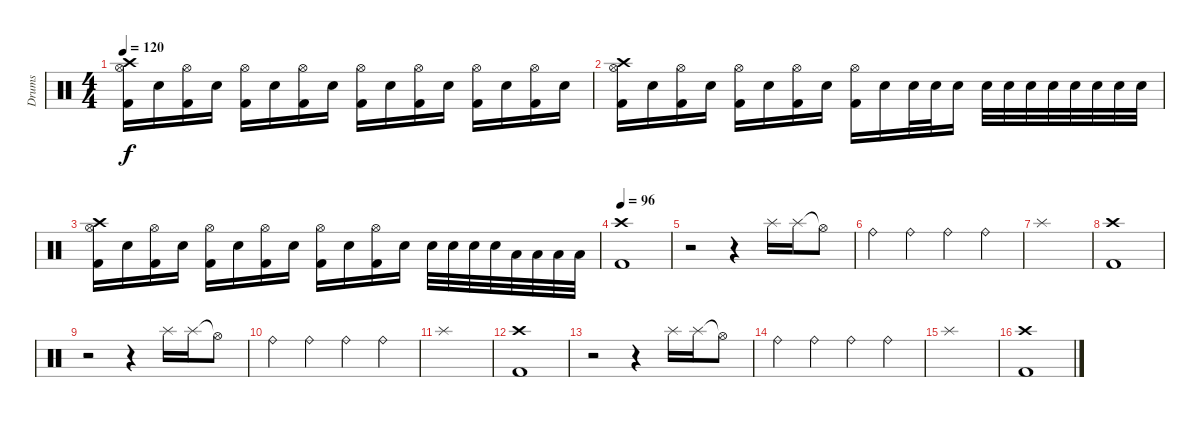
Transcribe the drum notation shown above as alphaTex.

\track ("Drums" "Drums") {instrument percussion}
\staff {score}
\articulation defaults
\ts (4 4)
\tempo 120
\clef neutral
\ks c
("Hi-Hat (open)" "Crash high (hit)" "Kick (hit) 2").16{dy f} "Electric Snare (hit)".16 ("Hi-Hat (open)" "Kick (hit) 2").16 "Electric Snare (hit)".16 ("Hi-Hat (open)" "Kick (hit) 2").16 "Electric Snare (hit)".16 ("Hi-Hat (open)" "Kick (hit) 2").16 "Electric Snare (hit)".16 ("Hi-Hat (open)" "Kick (hit) 2").16 "Electric Snare (hit)".16 ("Hi-Hat (open)" "Kick (hit) 2").16 "Electric Snare (hit)".16 ("Hi-Hat (open)" "Kick (hit) 2").16 "Electric Snare (hit)".16 ("Hi-Hat (open)" "Kick (hit) 2").16 "Electric Snare (hit)".16 |
("Hi-Hat (open)" "Crash high (hit)" "Kick (hit) 2").16 "Electric Snare (hit)".16 ("Hi-Hat (open)" "Kick (hit) 2").16 "Electric Snare (hit)".16 ("Hi-Hat (open)" "Kick (hit) 2").16 "Electric Snare (hit)".16 ("Hi-Hat (open)" "Kick (hit) 2").16 "Electric Snare (hit)".16 ("Hi-Hat (open)" "Kick (hit) 2").16 "Electric Snare (hit)".16 "Electric Snare (hit)".32 "Electric Snare (hit)".32 "Electric Snare (hit)".16 "Electric Snare (hit)".32 "Electric Snare (hit)".32 "Electric Snare (hit)".32 "Electric Snare (hit)".32 "Electric Snare (hit)".32 "Electric Snare (hit)".32 "Electric Snare (hit)".32 "Electric Snare (hit)".32 |
("Hi-Hat (open)" "Crash high (hit)" "Kick (hit) 2").16 "Electric Snare (hit)".16 ("Hi-Hat (open)" "Kick (hit) 2").16 "Electric Snare (hit)".16 ("Hi-Hat (open)" "Kick (hit) 2").16 "Electric Snare (hit)".16 ("Hi-Hat (open)" "Kick (hit) 2").16 "Electric Snare (hit)".16 ("Hi-Hat (open)" "Kick (hit) 2").16 "Electric Snare (hit)".16 ("Hi-Hat (open)" "Kick (hit) 2").16 "Electric Snare (hit)".16 "Electric Snare (hit)".32 "Electric Snare (hit)".32 "Electric Snare (hit)".32 "Electric Snare (hit)".32 "Low Tom (hit)".32 "Low Tom (hit)".32 "Low Tom (hit)".32 "Low Tom (hit)".32 |
\tempo 96
("Crash high (hit)" "Kick (hit) 2").1 |
r.2 r.4 "Splash (hit)".16 "Splash (hit)".16 "Hi-Hat (open)"{t}.8 |
"Ride (bell)".4 "Ride (bell)".4 "Ride (bell)".4 "Ride (bell)".4 |
"Splash (hit)".1 |
("Crash high (hit)" "Kick (hit) 2").1 |
r.2 r.4 "Splash (hit)".16 "Splash (hit)".16 "Hi-Hat (open)"{t}.8 |
"Ride (bell)".4 "Ride (bell)".4 "Ride (bell)".4 "Ride (bell)".4 |
"Splash (hit)".1 |
("Crash high (hit)" "Kick (hit) 2").1 |
r.2 r.4 "Splash (hit)".16 "Splash (hit)".16 "Hi-Hat (open)"{t}.8 |
"Ride (bell)".4 "Ride (bell)".4 "Ride (bell)".4 "Ride (bell)".4 |
"Splash (hit)".1 |
("Crash high (hit)" "Kick (hit) 2").1
